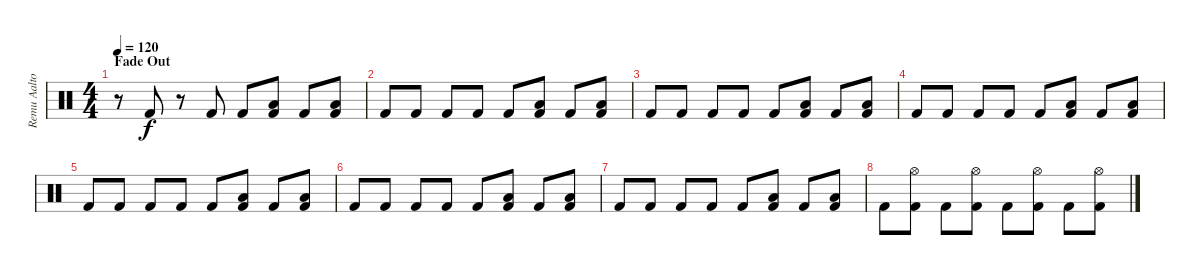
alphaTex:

\track ("Remu Aaltonen" "Remu Aalto") {instrument percussion}
\staff {score}
\articulation defaults
\ts (4 4)
\section ("" "Fade Out")
\tempo 120
\clef neutral
\ks c
r.8{dy f} "Kick (hit) 2".8 r.8 "Kick (hit) 2".8 "Kick (hit) 2".8 ("Low Tom (hit)" "Kick (hit) 2").8 "Kick (hit) 2".8 ("Low Tom (hit)" "Kick (hit) 2").8 |
"Kick (hit) 2".8 "Kick (hit) 2".8 "Kick (hit) 2".8 "Kick (hit) 2".8 "Kick (hit) 2".8 ("Low Tom (hit)" "Kick (hit) 2").8 "Kick (hit) 2".8 ("Low Tom (hit)" "Kick (hit) 2").8 |
"Kick (hit) 2".8 "Kick (hit) 2".8 "Kick (hit) 2".8 "Kick (hit) 2".8 "Kick (hit) 2".8 ("Low Tom (hit)" "Kick (hit) 2").8 "Kick (hit) 2".8 ("Low Tom (hit)" "Kick (hit) 2").8 |
"Kick (hit) 2".8 "Kick (hit) 2".8 "Kick (hit) 2".8 "Kick (hit) 2".8 "Kick (hit) 2".8 ("Low Tom (hit)" "Kick (hit) 2").8 "Kick (hit) 2".8 ("Low Tom (hit)" "Kick (hit) 2").8 |
"Kick (hit) 2".8 "Kick (hit) 2".8 "Kick (hit) 2".8 "Kick (hit) 2".8 "Kick (hit) 2".8 ("Low Tom (hit)" "Kick (hit) 2").8 "Kick (hit) 2".8 ("Low Tom (hit)" "Kick (hit) 2").8 |
"Kick (hit) 2".8 "Kick (hit) 2".8 "Kick (hit) 2".8 "Kick (hit) 2".8 "Kick (hit) 2".8 ("Low Tom (hit)" "Kick (hit) 2").8 "Kick (hit) 2".8 ("Low Tom (hit)" "Kick (hit) 2").8 |
"Kick (hit) 2".8 "Kick (hit) 2".8 "Kick (hit) 2".8 "Kick (hit) 2".8 "Kick (hit) 2".8 ("Low Tom (hit)" "Kick (hit) 2").8 "Kick (hit) 2".8 ("Low Tom (hit)" "Kick (hit) 2").8 |
"Kick (hit) 2".8 ("Kick (hit) 2" "Hi-Hat (open)").8 "Kick (hit) 2".8 ("Kick (hit) 2" "Hi-Hat (open)").8 "Kick (hit) 2".8 ("Kick (hit) 2" "Hi-Hat (open)").8 "Kick (hit) 2".8 ("Kick (hit) 2" "Hi-Hat (open)").8
